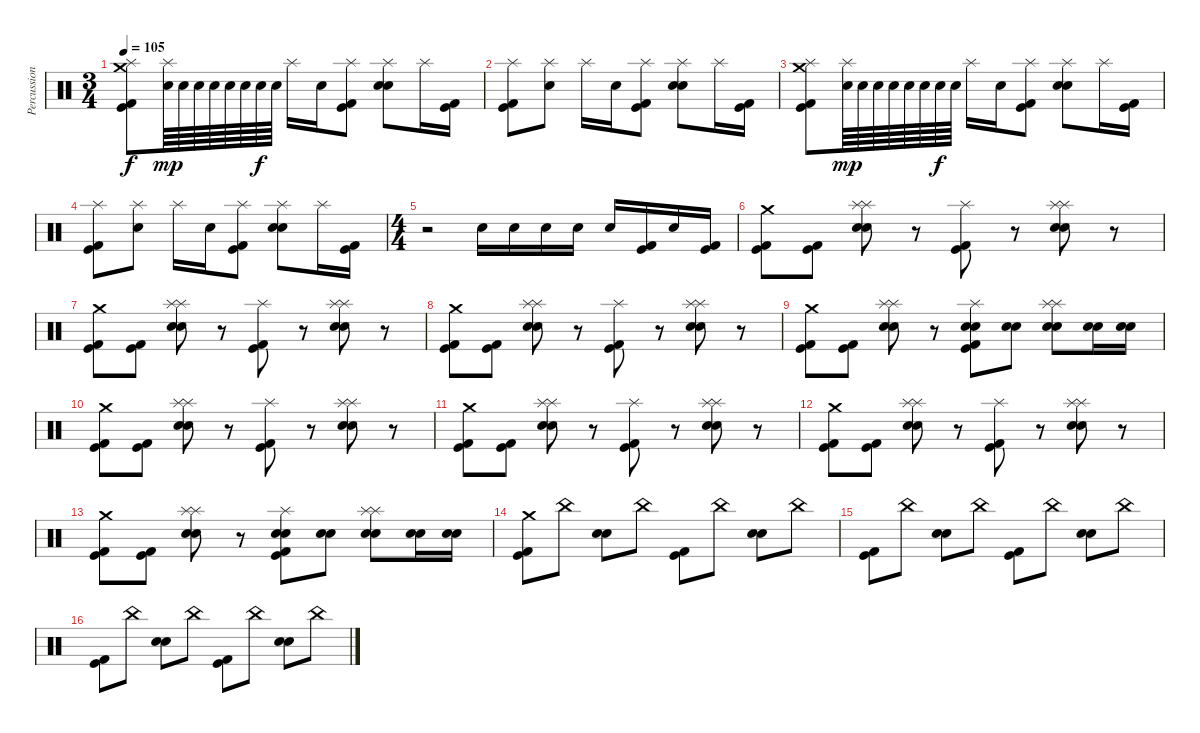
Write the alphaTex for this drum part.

\track ("Percussions" "Percussion") {instrument percussion}
\staff {score}
\articulation defaults
\ts (3 4)
\tempo 105
\clef neutral
\ks c
("Crash medium (hit)" "Splash (hit)" "Kick (hit) 2" "Kick (hit)").8{dy f} ("Splash (hit)" "Electric Snare (hit)").64{dy mp} "Electric Snare (hit)".64 "Electric Snare (hit)".64 "Electric Snare (hit)".64 "Electric Snare (hit)".64 "Electric Snare (hit)".64 "Electric Snare (hit)".64{dy f} "Electric Snare (hit)".64 "Splash (hit)".16 "Snare (hit) 2".16 ("Splash (hit)" "Kick (hit)" "Kick (hit) 2").8 ("Splash (hit)" "Electric Snare (hit)" "Snare (hit) 2").8 "Splash (hit)".16 ("Kick (hit) 2" "Kick (hit)").16 |
("Splash (hit)" "Kick (hit) 2" "Kick (hit)").8 ("Splash (hit)" "Electric Snare (hit)").8 "Splash (hit)".16 "Snare (hit) 2".16 ("Splash (hit)" "Kick (hit)" "Kick (hit) 2").8 ("Splash (hit)" "Electric Snare (hit)" "Snare (hit) 2").8 "Splash (hit)".16 ("Kick (hit) 2" "Kick (hit)").16 |
("Crash medium (hit)" "Splash (hit)" "Kick (hit) 2" "Kick (hit)").8 ("Splash (hit)" "Electric Snare (hit)").64{dy mp} "Electric Snare (hit)".64 "Electric Snare (hit)".64 "Electric Snare (hit)".64 "Electric Snare (hit)".64 "Electric Snare (hit)".64 "Electric Snare (hit)".64{dy f} "Electric Snare (hit)".64 "Splash (hit)".16 "Snare (hit) 2".16 ("Splash (hit)" "Kick (hit)" "Kick (hit) 2").8 ("Splash (hit)" "Electric Snare (hit)" "Snare (hit) 2").8 "Splash (hit)".16 ("Kick (hit) 2" "Kick (hit)").16 |
("Splash (hit)" "Kick (hit) 2" "Kick (hit)").8 ("Splash (hit)" "Electric Snare (hit)").8 "Splash (hit)".16 "Snare (hit) 2".16 ("Splash (hit)" "Kick (hit)" "Kick (hit) 2").8 ("Splash (hit)" "Electric Snare (hit)" "Snare (hit) 2").8 "Splash (hit)".16 ("Kick (hit) 2" "Kick (hit)").16 |
\ts (4 4)
r.2 "Electric Snare (hit)".16 "Electric Snare (hit)".16 "Electric Snare (hit)".16 "Electric Snare (hit)".16 "Electric Snare (hit)".16 ("Kick (hit) 2" "Kick (hit)").16 "Electric Snare (hit)".16 ("Kick (hit) 2" "Kick (hit)").16 |
("Crash medium (hit)" "Kick (hit) 2" "Kick (hit)").8 ("Kick (hit) 2" "Kick (hit)").8 ("Splash (hit)" "Splash (hit)" "Electric Snare (hit)" "Electric Snare (hit)").8 r.8 ("Splash (hit)" "Kick (hit) 2" "Kick (hit)").8 r.8 ("Splash (hit)" "Splash (hit)" "Electric Snare (hit)" "Electric Snare (hit)").8 r.8 |
("Crash medium (hit)" "Kick (hit) 2" "Kick (hit)").8 ("Kick (hit) 2" "Kick (hit)").8 ("Splash (hit)" "Splash (hit)" "Electric Snare (hit)" "Electric Snare (hit)").8 r.8 ("Splash (hit)" "Kick (hit) 2" "Kick (hit)").8 r.8 ("Splash (hit)" "Splash (hit)" "Electric Snare (hit)" "Electric Snare (hit)").8 r.8 |
("Crash medium (hit)" "Kick (hit) 2" "Kick (hit)").8 ("Kick (hit) 2" "Kick (hit)").8 ("Splash (hit)" "Splash (hit)" "Electric Snare (hit)" "Electric Snare (hit)").8 r.8 ("Splash (hit)" "Kick (hit) 2" "Kick (hit)").8 r.8 ("Splash (hit)" "Splash (hit)" "Electric Snare (hit)" "Electric Snare (hit)").8 r.8 |
("Crash medium (hit)" "Kick (hit) 2" "Kick (hit)").8 ("Kick (hit) 2" "Kick (hit)").8 ("Splash (hit)" "Splash (hit)" "Electric Snare (hit)" "Electric Snare (hit)").8 r.8 ("Splash (hit)" "Electric Snare (hit)" "Electric Snare (hit)" "Kick (hit) 2" "Kick (hit)").8 ("Electric Snare (hit)" "Electric Snare (hit)").8 ("Splash (hit)" "Splash (hit)" "Electric Snare (hit)" "Electric Snare (hit)").8 ("Electric Snare (hit)" "Electric Snare (hit)").16 ("Electric Snare (hit)" "Electric Snare (hit)").16 |
("Crash medium (hit)" "Kick (hit) 2" "Kick (hit)").8 ("Kick (hit) 2" "Kick (hit)").8 ("Splash (hit)" "Splash (hit)" "Electric Snare (hit)" "Electric Snare (hit)").8 r.8 ("Splash (hit)" "Kick (hit) 2" "Kick (hit)").8 r.8 ("Splash (hit)" "Splash (hit)" "Electric Snare (hit)" "Electric Snare (hit)").8 r.8 |
("Crash medium (hit)" "Kick (hit) 2" "Kick (hit)").8 ("Kick (hit) 2" "Kick (hit)").8 ("Splash (hit)" "Splash (hit)" "Electric Snare (hit)" "Electric Snare (hit)").8 r.8 ("Splash (hit)" "Kick (hit) 2" "Kick (hit)").8 r.8 ("Splash (hit)" "Splash (hit)" "Electric Snare (hit)" "Electric Snare (hit)").8 r.8 |
("Crash medium (hit)" "Kick (hit) 2" "Kick (hit)").8 ("Kick (hit) 2" "Kick (hit)").8 ("Splash (hit)" "Splash (hit)" "Electric Snare (hit)" "Electric Snare (hit)").8 r.8 ("Splash (hit)" "Kick (hit) 2" "Kick (hit)").8 r.8 ("Splash (hit)" "Splash (hit)" "Electric Snare (hit)" "Electric Snare (hit)").8 r.8 |
("Crash medium (hit)" "Kick (hit) 2" "Kick (hit)").8 ("Kick (hit) 2" "Kick (hit)").8 ("Splash (hit)" "Splash (hit)" "Electric Snare (hit)" "Electric Snare (hit)").8 r.8 ("Splash (hit)" "Electric Snare (hit)" "Electric Snare (hit)" "Kick (hit) 2" "Kick (hit)").8 ("Electric Snare (hit)" "Electric Snare (hit)").8 ("Splash (hit)" "Splash (hit)" "Electric Snare (hit)" "Electric Snare (hit)").8 ("Electric Snare (hit)" "Electric Snare (hit)").16 ("Electric Snare (hit)" "Electric Snare (hit)").16 |
("Crash medium (hit)" "Kick (hit) 2" "Kick (hit)").8 "China (hit)".8 ("Electric Snare (hit)" "Electric Snare (hit)").8 "China (hit)".8 ("Kick (hit) 2" "Kick (hit)").8 "China (hit)".8 ("Electric Snare (hit)" "Electric Snare (hit)").8 "China (hit)".8 |
("Kick (hit) 2" "Kick (hit)").8 "China (hit)".8 ("Electric Snare (hit)" "Electric Snare (hit)").8 "China (hit)".8 ("Kick (hit) 2" "Kick (hit)").8 "China (hit)".8 ("Electric Snare (hit)" "Electric Snare (hit)").8 "China (hit)".8 |
("Kick (hit) 2" "Kick (hit)").8 "China (hit)".8 ("Electric Snare (hit)" "Electric Snare (hit)").8 "China (hit)".8 ("Kick (hit) 2" "Kick (hit)").8 "China (hit)".8 ("Electric Snare (hit)" "Electric Snare (hit)").8 "China (hit)".8
